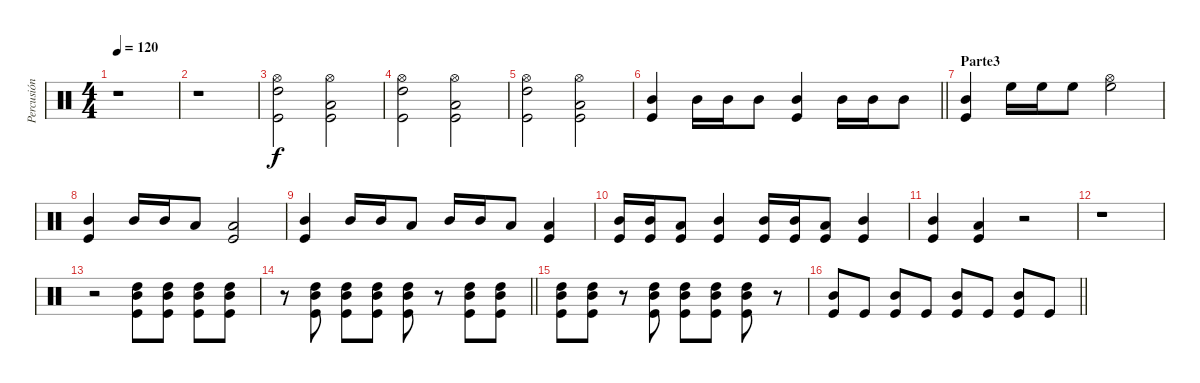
\track ("Percusión" "Percusión") {instrument percussion}
\staff {score}
\articulation defaults
\ts (4 4)
\tempo 120
\clef neutral
\ks c
r.1{dy f} |
r.1 |
("Hi-Hat (open)" "High Tom (hit)" "Kick (hit)").2{volume 13} ("Hi-Hat (open)" "Low Tom (hit)" "Kick (hit)").2 |
("Hi-Hat (open)" "High Tom (hit)" "Kick (hit)").2 ("Hi-Hat (open)" "Low Tom (hit)" "Kick (hit)").2 |
("Hi-Hat (open)" "High Tom (hit)" "Kick (hit)").2 ("Hi-Hat (open)" "Low Tom (hit)" "Kick (hit)").2 |
\barLineRight lightlight
("Mid Tom (hit)" "Kick (hit)").4 "Mid Tom (hit)".16 "Mid Tom (hit)".16 "Mid Tom (hit)".8 ("Mid Tom (hit)" "Kick (hit)").4 "Mid Tom (hit)".16 "Mid Tom (hit)".16 "Mid Tom (hit)".8 |
\section ("" "Parte3")
("Mid Tom (hit)" "Kick (hit)").4 "High Floor Tom (hit)".16 "High Floor Tom (hit)".16 "High Floor Tom (hit)".8 ("Hi-Hat (open)" "High Floor Tom (hit)").2 |
("Mid Tom (hit)" "Kick (hit)").4 "Mid Tom (hit)".16 "Mid Tom (hit)".16 "Low Tom (hit)".8 ("Low Tom (hit)" "Kick (hit)").2 |
("Mid Tom (hit)" "Kick (hit)").4 "Mid Tom (hit)".16 "Mid Tom (hit)".16 "Low Tom (hit)".8 "Mid Tom (hit)".16 "Mid Tom (hit)".16 "Low Tom (hit)".8 ("Low Tom (hit)" "Kick (hit)").4 |
("Mid Tom (hit)" "Kick (hit)").16 ("Mid Tom (hit)" "Kick (hit)").16 ("Low Tom (hit)" "Kick (hit)").8 ("Mid Tom (hit)" "Kick (hit)").4 ("Mid Tom (hit)" "Kick (hit)").16 ("Mid Tom (hit)" "Kick (hit)").16 ("Low Tom (hit)" "Kick (hit)").8 ("Mid Tom (hit)" "Kick (hit)").4 |
("Mid Tom (hit)" "Kick (hit)").4 ("Low Tom (hit)" "Kick (hit)").4 r.2 |
r.1 |
r.2 ("High Tom (hit)" "Mid Tom (hit)" "Kick (hit)").8 ("High Tom (hit)" "Mid Tom (hit)" "Kick (hit)").8 ("High Tom (hit)" "Mid Tom (hit)" "Kick (hit)").8 ("High Tom (hit)" "Mid Tom (hit)" "Kick (hit)").8 |
\barLineRight lightlight
r.8 ("High Tom (hit)" "Mid Tom (hit)" "Kick (hit)").8 ("High Tom (hit)" "Mid Tom (hit)" "Kick (hit)").8 ("High Tom (hit)" "Mid Tom (hit)" "Kick (hit)").8 ("High Tom (hit)" "Mid Tom (hit)" "Kick (hit)").8 r.8 ("High Tom (hit)" "Mid Tom (hit)" "Kick (hit)").8 ("High Tom (hit)" "Mid Tom (hit)" "Kick (hit)").8 |
\section ("" "")
("High Tom (hit)" "Mid Tom (hit)" "Kick (hit)").8 ("High Tom (hit)" "Mid Tom (hit)" "Kick (hit)").8 r.8 ("High Tom (hit)" "Mid Tom (hit)" "Kick (hit)").8 ("High Tom (hit)" "Mid Tom (hit)" "Kick (hit)").8 ("High Tom (hit)" "Mid Tom (hit)" "Kick (hit)").8 ("High Tom (hit)" "Mid Tom (hit)" "Kick (hit)").8 r.8 |
\barLineRight lightlight
("Mid Tom (hit)" "Kick (hit)").8 "Kick (hit)".8 ("Mid Tom (hit)" "Kick (hit)").8 "Kick (hit)".8 ("Mid Tom (hit)" "Kick (hit)").8 "Kick (hit)".8 ("Mid Tom (hit)" "Kick (hit)").8 "Kick (hit)".8
